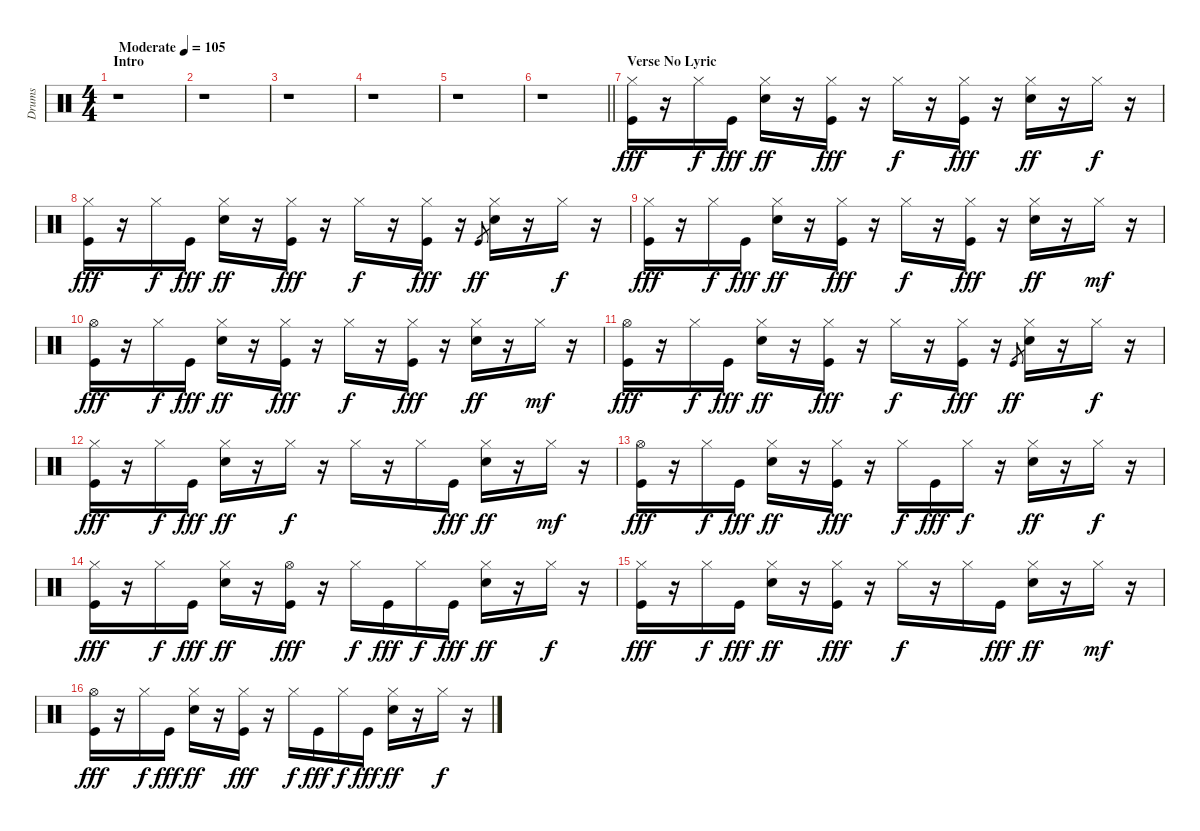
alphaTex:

\track ("Drums" "Drums") {instrument percussion}
\staff {score}
\articulation defaults
\ts (4 4)
\section ("" "Intro")
\tempo (105 "Moderate")
\clef neutral
\ks c
r.1{dy fff} |
r.1 |
r.1 |
r.1 |
r.1 |
\barLineRight lightlight
r.1 |
\section ("" "Verse No Lyric")
("Hi-Hat (closed)" "Kick (hit)").16 r.16 "Hi-Hat (closed)".16{dy f} "Kick (hit)".16{dy fff} ("Hi-Hat (closed)" "Electric Snare (hit)").16{dy ff} r.16 ("Hi-Hat (closed)" "Kick (hit)").16{dy fff} r.16 "Hi-Hat (closed)".16{dy f} r.16 ("Hi-Hat (closed)" "Kick (hit)").16{dy fff} r.16 ("Hi-Hat (closed)" "Electric Snare (hit)").16{dy ff} r.16 "Hi-Hat (closed)".16{dy f} r.16 |
("Hi-Hat (closed)" "Kick (hit)").16{dy fff} r.16 "Hi-Hat (closed)".16{dy f} "Kick (hit)".16{dy fff} ("Hi-Hat (closed)" "Electric Snare (hit)").16{dy ff} r.16 ("Hi-Hat (closed)" "Kick (hit)").16{dy fff} r.16 "Hi-Hat (closed)".16{dy f} r.16 ("Hi-Hat (closed)" "Kick (hit)").16{dy fff} r.16 "Kick (hit)".8{gr dy ff} ("Hi-Hat (closed)" "Electric Snare (hit)").16 r.16 "Hi-Hat (closed)".16{dy f} r.16 |
("Hi-Hat (closed)" "Kick (hit)").16{dy fff} r.16 "Hi-Hat (closed)".16{dy f} "Kick (hit)".16{dy fff} ("Hi-Hat (closed)" "Electric Snare (hit)").16{dy ff} r.16 ("Hi-Hat (closed)" "Kick (hit)").16{dy fff} r.16 "Hi-Hat (closed)".16{dy f} r.16 ("Hi-Hat (closed)" "Kick (hit)").16{dy fff} r.16 ("Hi-Hat (closed)" "Electric Snare (hit)").16{dy ff} r.16 "Hi-Hat (closed)".16{dy mf} r.16 |
("Hi-Hat (open)" "Kick (hit)").16{dy fff} r.16 "Hi-Hat (closed)".16{dy f} "Kick (hit)".16{dy fff} ("Hi-Hat (closed)" "Electric Snare (hit)").16{dy ff} r.16 ("Hi-Hat (closed)" "Kick (hit)").16{dy fff} r.16 "Hi-Hat (closed)".16{dy f} r.16 ("Hi-Hat (closed)" "Kick (hit)").16{dy fff} r.16 ("Hi-Hat (closed)" "Electric Snare (hit)").16{dy ff} r.16 "Hi-Hat (closed)".16{dy mf} r.16 |
("Hi-Hat (open)" "Kick (hit)").16{dy fff} r.16 "Hi-Hat (closed)".16{dy f} "Kick (hit)".16{dy fff} ("Hi-Hat (closed)" "Electric Snare (hit)").16{dy ff} r.16 ("Hi-Hat (closed)" "Kick (hit)").16{dy fff} r.16 "Hi-Hat (closed)".16{dy f} r.16 ("Hi-Hat (closed)" "Kick (hit)").16{dy fff} r.16 "Kick (hit)".8{gr dy ff} ("Hi-Hat (closed)" "Electric Snare (hit)").16 r.16 "Hi-Hat (closed)".16{dy f} r.16 |
("Hi-Hat (closed)" "Kick (hit)").16{dy fff} r.16 "Hi-Hat (closed)".16{dy f} "Kick (hit)".16{dy fff} ("Hi-Hat (closed)" "Electric Snare (hit)").16{dy ff} r.16 "Hi-Hat (closed)".16{dy f} r.16 "Hi-Hat (closed)".16 r.16 "Hi-Hat (closed)".16 "Kick (hit)".16{dy fff} ("Hi-Hat (closed)" "Electric Snare (hit)").16{dy ff} r.16 "Hi-Hat (closed)".16{dy mf} r.16 |
("Hi-Hat (open)" "Kick (hit)").16{dy fff} r.16 "Hi-Hat (closed)".16{dy f} "Kick (hit)".16{dy fff} ("Hi-Hat (closed)" "Electric Snare (hit)").16{dy ff} r.16 ("Hi-Hat (closed)" "Kick (hit)").16{dy fff} r.16 "Hi-Hat (closed)".16{dy f} "Kick (hit)".16{dy fff} "Hi-Hat (closed)".16{dy f} r.16 ("Hi-Hat (closed)" "Electric Snare (hit)").16{dy ff} r.16 "Hi-Hat (closed)".16{dy f} r.16 |
("Hi-Hat (closed)" "Kick (hit)").16{dy fff} r.16 "Hi-Hat (closed)".16{dy f} "Kick (hit)".16{dy fff} ("Hi-Hat (closed)" "Electric Snare (hit)").16{dy ff} r.16 ("Hi-Hat (open)" "Kick (hit)").16{dy fff} r.16 "Hi-Hat (closed)".16{dy f} "Kick (hit)".16{dy fff} "Hi-Hat (closed)".16{dy f} "Kick (hit)".16{dy fff} ("Hi-Hat (closed)" "Electric Snare (hit)").16{dy ff} r.16 "Hi-Hat (closed)".16{dy f} r.16 |
("Hi-Hat (closed)" "Kick (hit)").16{dy fff} r.16 "Hi-Hat (closed)".16{dy f} "Kick (hit)".16{dy fff} ("Hi-Hat (closed)" "Electric Snare (hit)").16{dy ff} r.16 ("Hi-Hat (closed)" "Kick (hit)").16{dy fff} r.16 "Hi-Hat (closed)".16{dy f} r.16 "Hi-Hat (closed)".16 "Kick (hit)".16{dy fff} ("Hi-Hat (closed)" "Electric Snare (hit)").16{dy ff} r.16 "Hi-Hat (closed)".16{dy mf} r.16 |
("Hi-Hat (open)" "Kick (hit)").16{dy fff} r.16 "Hi-Hat (closed)".16{dy f} "Kick (hit)".16{dy fff} ("Hi-Hat (closed)" "Electric Snare (hit)").16{dy ff} r.16 ("Hi-Hat (closed)" "Kick (hit)").16{dy fff} r.16 "Hi-Hat (closed)".16{dy f} "Kick (hit)".16{dy fff} "Hi-Hat (closed)".16{dy f} "Kick (hit)".16{dy fff} ("Hi-Hat (closed)" "Electric Snare (hit)").16{dy ff} r.16 "Hi-Hat (closed)".16{dy f} r.16
